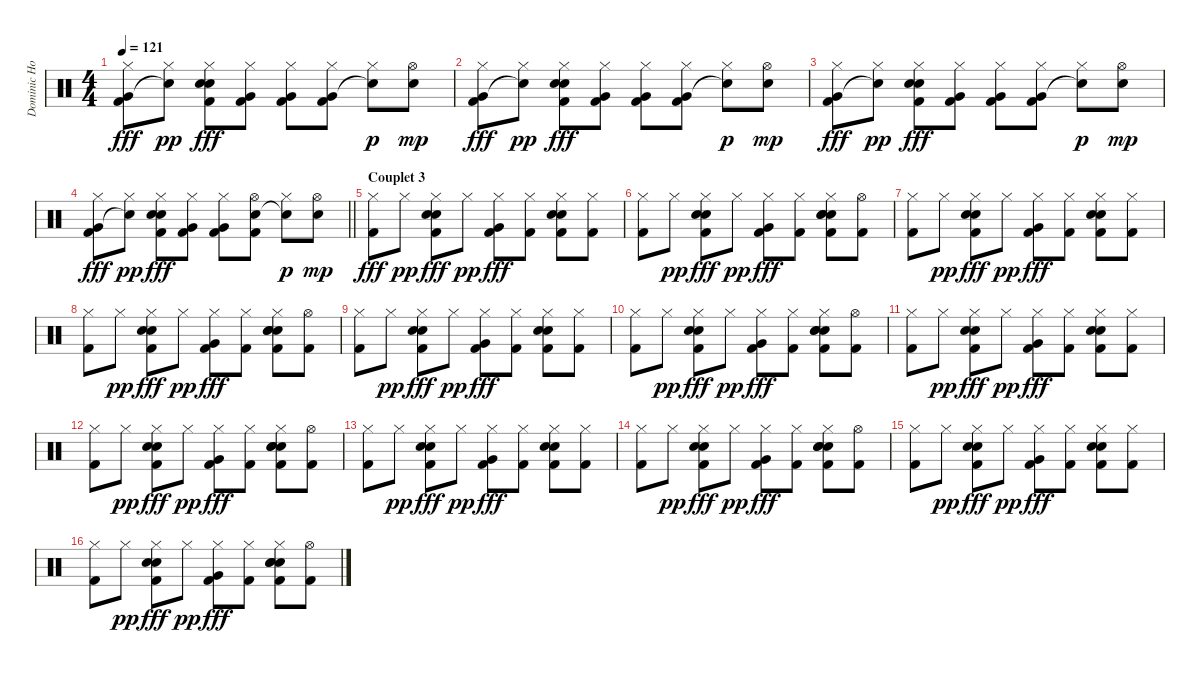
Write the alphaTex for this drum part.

\track ("Dominic Howard" "Dominic Ho") {instrument percussion}
\staff {score}
\articulation defaults
\ts (4 4)
\tempo 121
\clef neutral
\ks c
("Hi-Hat (closed)" "Very Low Tom (hit)" "Kick (hit) 2").8{dy fff} ("Hi-Hat (closed)" "Snare (hit)"{t}).8{dy pp} ("Hi-Hat (closed)" "Electric Snare (hit)" "Hand Clap (hit)" "Kick (hit) 2").8{dy fff} ("Hi-Hat (closed)" "Very Low Tom (hit)" "Kick (hit) 2").8 ("Hi-Hat (closed)" "Very Low Tom (hit)" "Kick (hit) 2").8 ("Hi-Hat (closed)" "Very Low Tom (hit)" "Kick (hit) 2").8 ("Hi-Hat (closed)" "Snare (hit)"{t}).8{dy p} ("Hi-Hat (open)" "Electric Snare (hit)").8{dy mp} |
("Hi-Hat (closed)" "Very Low Tom (hit)" "Kick (hit) 2").8{dy fff} ("Hi-Hat (closed)" "Snare (hit)"{t}).8{dy pp} ("Hi-Hat (closed)" "Electric Snare (hit)" "Hand Clap (hit)" "Kick (hit) 2").8{dy fff} ("Hi-Hat (closed)" "Very Low Tom (hit)" "Kick (hit) 2").8 ("Hi-Hat (closed)" "Very Low Tom (hit)" "Kick (hit) 2").8 ("Hi-Hat (closed)" "Very Low Tom (hit)" "Kick (hit) 2").8 ("Hi-Hat (closed)" "Snare (hit)"{t}).8{dy p} ("Hi-Hat (open)" "Electric Snare (hit)").8{dy mp} |
("Hi-Hat (closed)" "Very Low Tom (hit)" "Kick (hit) 2").8{dy fff} ("Hi-Hat (closed)" "Snare (hit)"{t}).8{dy pp} ("Hi-Hat (closed)" "Electric Snare (hit)" "Hand Clap (hit)" "Kick (hit) 2").8{dy fff} ("Hi-Hat (closed)" "Very Low Tom (hit)" "Kick (hit) 2").8 ("Hi-Hat (closed)" "Very Low Tom (hit)" "Kick (hit) 2").8 ("Hi-Hat (closed)" "Very Low Tom (hit)" "Kick (hit) 2").8 ("Hi-Hat (closed)" "Snare (hit)"{t}).8{dy p} ("Hi-Hat (open)" "Electric Snare (hit)").8{dy mp} |
\barLineRight lightlight
("Hi-Hat (closed)" "Very Low Tom (hit)" "Kick (hit) 2").8{dy fff} ("Hi-Hat (closed)" "Snare (hit)"{t}).8{dy pp} ("Hi-Hat (closed)" "Electric Snare (hit)" "Hand Clap (hit)" "Kick (hit) 2").8{dy fff} ("Hi-Hat (closed)" "Very Low Tom (hit)" "Kick (hit) 2").8 ("Hi-Hat (closed)" "Very Low Tom (hit)" "Kick (hit) 2").8 ("Hi-Hat (open)" "Electric Snare (hit)" "Kick (hit) 2").8 ("Hi-Hat (closed)" "Snare (hit)"{t}).8{dy p} ("Hi-Hat (open)" "Electric Snare (hit)").8{dy mp} |
\section ("" "Couplet 3")
("Hi-Hat (closed)" "Kick (hit) 2").8{dy fff} "Hi-Hat (closed)".8{dy pp} ("Hi-Hat (closed)" "Electric Snare (hit)" "Hand Clap (hit)" "Kick (hit) 2").8{dy fff} "Hi-Hat (closed)".8{dy pp} ("Hi-Hat (closed)" "Very Low Tom (hit)" "Kick (hit) 2").8{dy fff} ("Hi-Hat (closed)" "Kick (hit) 2").8 ("Hi-Hat (closed)" "Electric Snare (hit)" "Hand Clap (hit)" "Kick (hit) 2").8 ("Hi-Hat (closed)" "Kick (hit) 2").8 |
("Hi-Hat (closed)" "Kick (hit) 2").8 "Hi-Hat (closed)".8{dy pp} ("Hi-Hat (closed)" "Electric Snare (hit)" "Hand Clap (hit)" "Kick (hit) 2").8{dy fff} "Hi-Hat (closed)".8{dy pp} ("Hi-Hat (closed)" "Very Low Tom (hit)" "Kick (hit) 2").8{dy fff} ("Hi-Hat (closed)" "Kick (hit) 2").8 ("Hi-Hat (closed)" "Electric Snare (hit)" "Electric Snare (hit)" "Hand Clap (hit)" "Kick (hit) 2").8 ("Hi-Hat (open)" "Kick (hit) 2").8 |
("Hi-Hat (closed)" "Kick (hit) 2").8 "Hi-Hat (closed)".8{dy pp} ("Hi-Hat (closed)" "Electric Snare (hit)" "Hand Clap (hit)" "Kick (hit) 2").8{dy fff} "Hi-Hat (closed)".8{dy pp} ("Hi-Hat (closed)" "Very Low Tom (hit)" "Kick (hit) 2").8{dy fff} ("Hi-Hat (closed)" "Kick (hit) 2").8 ("Hi-Hat (closed)" "Electric Snare (hit)" "Hand Clap (hit)" "Kick (hit) 2").8 ("Hi-Hat (closed)" "Kick (hit) 2").8 |
("Hi-Hat (closed)" "Kick (hit) 2").8 "Hi-Hat (closed)".8{dy pp} ("Hi-Hat (closed)" "Electric Snare (hit)" "Hand Clap (hit)" "Kick (hit) 2").8{dy fff} "Hi-Hat (closed)".8{dy pp} ("Hi-Hat (closed)" "Very Low Tom (hit)" "Kick (hit) 2").8{dy fff} ("Hi-Hat (closed)" "Kick (hit) 2").8 ("Hi-Hat (closed)" "Electric Snare (hit)" "Electric Snare (hit)" "Hand Clap (hit)" "Kick (hit) 2").8 ("Hi-Hat (open)" "Kick (hit) 2").8 |
("Hi-Hat (closed)" "Kick (hit) 2").8 "Hi-Hat (closed)".8{dy pp} ("Hi-Hat (closed)" "Electric Snare (hit)" "Hand Clap (hit)" "Kick (hit) 2").8{dy fff} "Hi-Hat (closed)".8{dy pp} ("Hi-Hat (closed)" "Very Low Tom (hit)" "Kick (hit) 2").8{dy fff} ("Hi-Hat (closed)" "Kick (hit) 2").8 ("Hi-Hat (closed)" "Electric Snare (hit)" "Hand Clap (hit)" "Kick (hit) 2").8 ("Hi-Hat (closed)" "Kick (hit) 2").8 |
("Hi-Hat (closed)" "Kick (hit) 2").8 "Hi-Hat (closed)".8{dy pp} ("Hi-Hat (closed)" "Electric Snare (hit)" "Hand Clap (hit)" "Kick (hit) 2").8{dy fff} "Hi-Hat (closed)".8{dy pp} ("Hi-Hat (closed)" "Very Low Tom (hit)" "Kick (hit) 2").8{dy fff} ("Hi-Hat (closed)" "Kick (hit) 2").8 ("Hi-Hat (closed)" "Electric Snare (hit)" "Electric Snare (hit)" "Hand Clap (hit)" "Kick (hit) 2").8 ("Hi-Hat (open)" "Kick (hit) 2").8 |
("Hi-Hat (closed)" "Kick (hit) 2").8 "Hi-Hat (closed)".8{dy pp} ("Hi-Hat (closed)" "Electric Snare (hit)" "Hand Clap (hit)" "Kick (hit) 2").8{dy fff} "Hi-Hat (closed)".8{dy pp} ("Hi-Hat (closed)" "Very Low Tom (hit)" "Kick (hit) 2").8{dy fff} ("Hi-Hat (closed)" "Kick (hit) 2").8 ("Hi-Hat (closed)" "Electric Snare (hit)" "Hand Clap (hit)" "Kick (hit) 2").8 ("Hi-Hat (closed)" "Kick (hit) 2").8 |
("Hi-Hat (closed)" "Kick (hit) 2").8 "Hi-Hat (closed)".8{dy pp} ("Hi-Hat (closed)" "Electric Snare (hit)" "Hand Clap (hit)" "Kick (hit) 2").8{dy fff} "Hi-Hat (closed)".8{dy pp} ("Hi-Hat (closed)" "Very Low Tom (hit)" "Kick (hit) 2").8{dy fff} ("Hi-Hat (closed)" "Kick (hit) 2").8 ("Hi-Hat (closed)" "Electric Snare (hit)" "Electric Snare (hit)" "Hand Clap (hit)" "Kick (hit) 2").8 ("Hi-Hat (open)" "Kick (hit) 2").8 |
("Hi-Hat (closed)" "Kick (hit) 2").8 "Hi-Hat (closed)".8{dy pp} ("Hi-Hat (closed)" "Electric Snare (hit)" "Hand Clap (hit)" "Kick (hit) 2").8{dy fff} "Hi-Hat (closed)".8{dy pp} ("Hi-Hat (closed)" "Very Low Tom (hit)" "Kick (hit) 2").8{dy fff} ("Hi-Hat (closed)" "Kick (hit) 2").8 ("Hi-Hat (closed)" "Electric Snare (hit)" "Hand Clap (hit)" "Kick (hit) 2").8 ("Hi-Hat (closed)" "Kick (hit) 2").8 |
("Hi-Hat (closed)" "Kick (hit) 2").8 "Hi-Hat (closed)".8{dy pp} ("Hi-Hat (closed)" "Electric Snare (hit)" "Hand Clap (hit)" "Kick (hit) 2").8{dy fff} "Hi-Hat (closed)".8{dy pp} ("Hi-Hat (closed)" "Very Low Tom (hit)" "Kick (hit) 2").8{dy fff} ("Hi-Hat (closed)" "Kick (hit) 2").8 ("Hi-Hat (closed)" "Electric Snare (hit)" "Electric Snare (hit)" "Hand Clap (hit)" "Kick (hit) 2").8 ("Hi-Hat (open)" "Kick (hit) 2").8 |
("Hi-Hat (closed)" "Kick (hit) 2").8 "Hi-Hat (closed)".8{dy pp} ("Hi-Hat (closed)" "Electric Snare (hit)" "Hand Clap (hit)" "Kick (hit) 2").8{dy fff} "Hi-Hat (closed)".8{dy pp} ("Hi-Hat (closed)" "Very Low Tom (hit)" "Kick (hit) 2").8{dy fff} ("Hi-Hat (closed)" "Kick (hit) 2").8 ("Hi-Hat (closed)" "Electric Snare (hit)" "Hand Clap (hit)" "Kick (hit) 2").8 ("Hi-Hat (closed)" "Kick (hit) 2").8 |
("Hi-Hat (closed)" "Kick (hit) 2").8 "Hi-Hat (closed)".8{dy pp} ("Hi-Hat (closed)" "Electric Snare (hit)" "Hand Clap (hit)" "Kick (hit) 2").8{dy fff} "Hi-Hat (closed)".8{dy pp} ("Hi-Hat (closed)" "Very Low Tom (hit)" "Kick (hit) 2").8{dy fff} ("Hi-Hat (closed)" "Kick (hit) 2").8 ("Hi-Hat (closed)" "Electric Snare (hit)" "Electric Snare (hit)" "Hand Clap (hit)" "Kick (hit) 2").8 ("Hi-Hat (open)" "Kick (hit) 2").8
